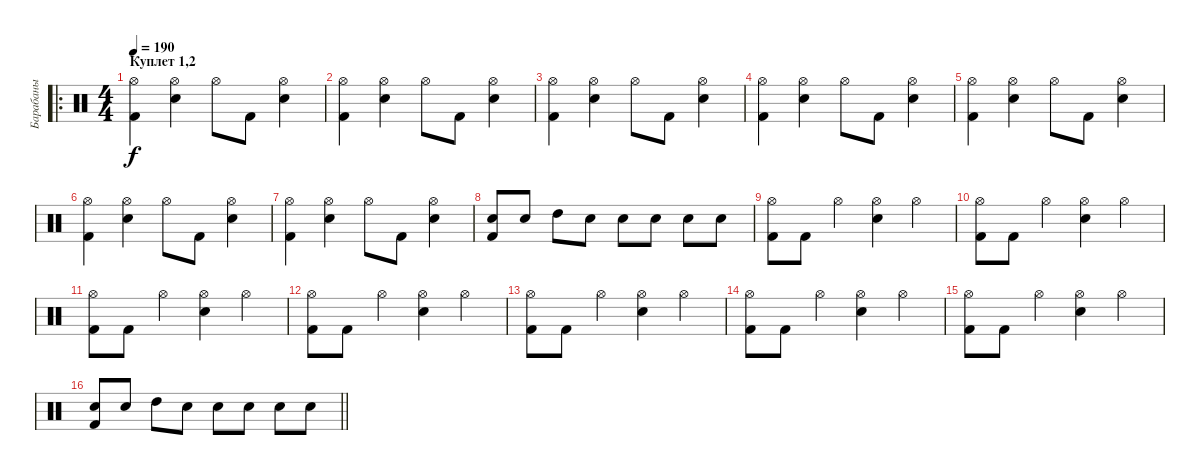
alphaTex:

\track ("Барабаны" "Барабаны") {instrument percussion}
\staff {score}
\articulation defaults
\ro
\ts (4 4)
\section ("" "Куплет 1,2")
\tempo 190
\clef neutral
\ks c
("Kick (hit) 2" "Hi-Hat (open)").4{dy f} ("Hi-Hat (open)" "Electric Snare (hit)").4 "Hi-Hat (open)".8 "Kick (hit) 2".8 ("Hi-Hat (open)" "Electric Snare (hit)").4 |
("Kick (hit) 2" "Hi-Hat (open)").4 ("Hi-Hat (open)" "Electric Snare (hit)").4 "Hi-Hat (open)".8 "Kick (hit) 2".8 ("Hi-Hat (open)" "Electric Snare (hit)").4 |
("Kick (hit) 2" "Hi-Hat (open)").4 ("Hi-Hat (open)" "Electric Snare (hit)").4 "Hi-Hat (open)".8 "Kick (hit) 2".8 ("Hi-Hat (open)" "Electric Snare (hit)").4 |
("Kick (hit) 2" "Hi-Hat (open)").4 ("Hi-Hat (open)" "Electric Snare (hit)").4 "Hi-Hat (open)".8 "Kick (hit) 2".8 ("Hi-Hat (open)" "Electric Snare (hit)").4 |
("Kick (hit) 2" "Hi-Hat (open)").4 ("Hi-Hat (open)" "Electric Snare (hit)").4 "Hi-Hat (open)".8 "Kick (hit) 2".8 ("Hi-Hat (open)" "Electric Snare (hit)").4 |
("Kick (hit) 2" "Hi-Hat (open)").4 ("Hi-Hat (open)" "Electric Snare (hit)").4 "Hi-Hat (open)".8 "Kick (hit) 2".8 ("Hi-Hat (open)" "Electric Snare (hit)").4 |
("Kick (hit) 2" "Hi-Hat (open)").4 ("Hi-Hat (open)" "Electric Snare (hit)").4 "Hi-Hat (open)".8 "Kick (hit) 2".8 ("Hi-Hat (open)" "Electric Snare (hit)").4 |
("Kick (hit) 2" "Electric Snare (hit)").8 "Electric Snare (hit)".8 "High Tom (hit)".8 "Electric Snare (hit)".8 "Electric Snare (hit)".8 "Electric Snare (hit)".8 "Electric Snare (hit)".8 "Electric Snare (hit)".8 |
("Kick (hit) 2" "Hi-Hat (open)").8 "Kick (hit) 2".8 "Hi-Hat (open)".4 ("Electric Snare (hit)" "Hi-Hat (open)").4 "Hi-Hat (open)".4 |
("Hi-Hat (open)" "Kick (hit) 2").8 "Kick (hit) 2".8 "Hi-Hat (open)".4 ("Hi-Hat (open)" "Electric Snare (hit)").4 "Hi-Hat (open)".4 |
("Kick (hit) 2" "Hi-Hat (open)").8 "Kick (hit) 2".8 "Hi-Hat (open)".4 ("Electric Snare (hit)" "Hi-Hat (open)").4 "Hi-Hat (open)".4 |
("Hi-Hat (open)" "Kick (hit) 2").8 "Kick (hit) 2".8 "Hi-Hat (open)".4 ("Hi-Hat (open)" "Electric Snare (hit)").4 "Hi-Hat (open)".4 |
("Kick (hit) 2" "Hi-Hat (open)").8 "Kick (hit) 2".8 "Hi-Hat (open)".4 ("Electric Snare (hit)" "Hi-Hat (open)").4 "Hi-Hat (open)".4 |
("Hi-Hat (open)" "Kick (hit) 2").8 "Kick (hit) 2".8 "Hi-Hat (open)".4 ("Hi-Hat (open)" "Electric Snare (hit)").4 "Hi-Hat (open)".4 |
("Kick (hit) 2" "Hi-Hat (open)").8 "Kick (hit) 2".8 "Hi-Hat (open)".4 ("Electric Snare (hit)" "Hi-Hat (open)").4 "Hi-Hat (open)".4 |
\barLineRight lightlight
("Kick (hit) 2" "Electric Snare (hit)").8 "Electric Snare (hit)".8 "High Tom (hit)".8 "Electric Snare (hit)".8 "Electric Snare (hit)".8 "Electric Snare (hit)".8 "Electric Snare (hit)".8 "Electric Snare (hit)".8
